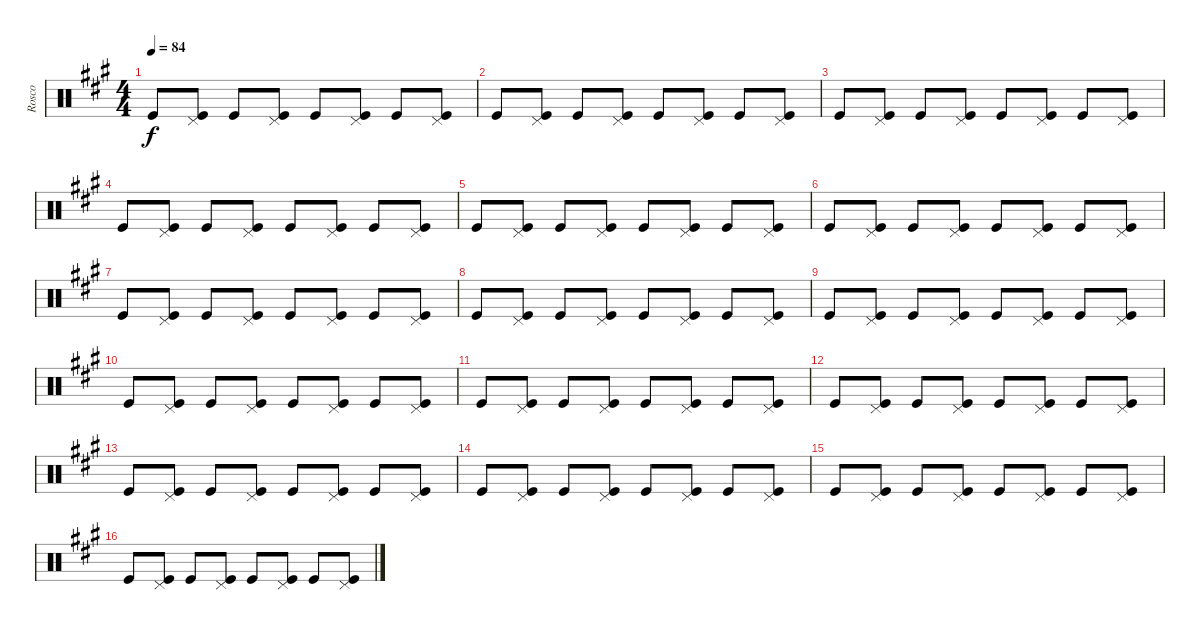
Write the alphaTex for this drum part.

\track ("Rosco" "Rosco") {instrument percussion}
\staff {score}
\articulation defaults
\ts (4 4)
\tempo 84
\clef neutral
\ks a "Kick (hit)".8{dy f}
("Pedal Hi-Hat (hit)" "Kick (hit)").8 "Kick (hit)".8 ("Pedal Hi-Hat (hit)" "Kick (hit)").8 "Kick (hit)".8 ("Pedal Hi-Hat (hit)" "Kick (hit)").8 "Kick (hit)".8 ("Pedal Hi-Hat (hit)" "Kick (hit)").8 |
"Kick (hit)".8 ("Pedal Hi-Hat (hit)" "Kick (hit)").8 "Kick (hit)".8 ("Pedal Hi-Hat (hit)" "Kick (hit)").8 "Kick (hit)".8 ("Pedal Hi-Hat (hit)" "Kick (hit)").8 "Kick (hit)".8 ("Pedal Hi-Hat (hit)" "Kick (hit)").8 |
"Kick (hit)".8 ("Pedal Hi-Hat (hit)" "Kick (hit)").8 "Kick (hit)".8 ("Pedal Hi-Hat (hit)" "Kick (hit)").8 "Kick (hit)".8 ("Pedal Hi-Hat (hit)" "Kick (hit)").8 "Kick (hit)".8 ("Pedal Hi-Hat (hit)" "Kick (hit)").8 |
"Kick (hit)".8 ("Pedal Hi-Hat (hit)" "Kick (hit)").8 "Kick (hit)".8 ("Pedal Hi-Hat (hit)" "Kick (hit)").8 "Kick (hit)".8 ("Pedal Hi-Hat (hit)" "Kick (hit)").8 "Kick (hit)".8 ("Pedal Hi-Hat (hit)" "Kick (hit)").8 |
"Kick (hit)".8 ("Pedal Hi-Hat (hit)" "Kick (hit)").8 "Kick (hit)".8 ("Pedal Hi-Hat (hit)" "Kick (hit)").8 "Kick (hit)".8 ("Pedal Hi-Hat (hit)" "Kick (hit)").8 "Kick (hit)".8 ("Pedal Hi-Hat (hit)" "Kick (hit)").8 |
"Kick (hit)".8 ("Pedal Hi-Hat (hit)" "Kick (hit)").8 "Kick (hit)".8 ("Pedal Hi-Hat (hit)" "Kick (hit)").8 "Kick (hit)".8 ("Pedal Hi-Hat (hit)" "Kick (hit)").8 "Kick (hit)".8 ("Pedal Hi-Hat (hit)" "Kick (hit)").8 |
"Kick (hit)".8 ("Pedal Hi-Hat (hit)" "Kick (hit)").8 "Kick (hit)".8 ("Pedal Hi-Hat (hit)" "Kick (hit)").8 "Kick (hit)".8 ("Pedal Hi-Hat (hit)" "Kick (hit)").8 "Kick (hit)".8 ("Pedal Hi-Hat (hit)" "Kick (hit)").8 |
"Kick (hit)".8 ("Pedal Hi-Hat (hit)" "Kick (hit)").8 "Kick (hit)".8 ("Pedal Hi-Hat (hit)" "Kick (hit)").8 "Kick (hit)".8 ("Pedal Hi-Hat (hit)" "Kick (hit)").8 "Kick (hit)".8 ("Pedal Hi-Hat (hit)" "Kick (hit)").8 |
"Kick (hit)".8 ("Pedal Hi-Hat (hit)" "Kick (hit)").8 "Kick (hit)".8 ("Pedal Hi-Hat (hit)" "Kick (hit)").8 "Kick (hit)".8 ("Pedal Hi-Hat (hit)" "Kick (hit)").8 "Kick (hit)".8 ("Pedal Hi-Hat (hit)" "Kick (hit)").8 |
"Kick (hit)".8 ("Pedal Hi-Hat (hit)" "Kick (hit)").8 "Kick (hit)".8 ("Pedal Hi-Hat (hit)" "Kick (hit)").8 "Kick (hit)".8 ("Pedal Hi-Hat (hit)" "Kick (hit)").8 "Kick (hit)".8 ("Pedal Hi-Hat (hit)" "Kick (hit)").8 |
"Kick (hit)".8 ("Pedal Hi-Hat (hit)" "Kick (hit)").8 "Kick (hit)".8 ("Pedal Hi-Hat (hit)" "Kick (hit)").8 "Kick (hit)".8 ("Pedal Hi-Hat (hit)" "Kick (hit)").8 "Kick (hit)".8 ("Pedal Hi-Hat (hit)" "Kick (hit)").8 |
"Kick (hit)".8 ("Pedal Hi-Hat (hit)" "Kick (hit)").8 "Kick (hit)".8 ("Pedal Hi-Hat (hit)" "Kick (hit)").8 "Kick (hit)".8 ("Pedal Hi-Hat (hit)" "Kick (hit)").8 "Kick (hit)".8 ("Pedal Hi-Hat (hit)" "Kick (hit)").8 |
"Kick (hit)".8 ("Pedal Hi-Hat (hit)" "Kick (hit)").8 "Kick (hit)".8 ("Pedal Hi-Hat (hit)" "Kick (hit)").8 "Kick (hit)".8 ("Pedal Hi-Hat (hit)" "Kick (hit)").8 "Kick (hit)".8 ("Pedal Hi-Hat (hit)" "Kick (hit)").8 |
"Kick (hit)".8 ("Pedal Hi-Hat (hit)" "Kick (hit)").8 "Kick (hit)".8 ("Pedal Hi-Hat (hit)" "Kick (hit)").8 "Kick (hit)".8 ("Pedal Hi-Hat (hit)" "Kick (hit)").8 "Kick (hit)".8 ("Pedal Hi-Hat (hit)" "Kick (hit)").8 |
"Kick (hit)".8 ("Pedal Hi-Hat (hit)" "Kick (hit)").8 "Kick (hit)".8 ("Pedal Hi-Hat (hit)" "Kick (hit)").8 "Kick (hit)".8 ("Pedal Hi-Hat (hit)" "Kick (hit)").8 "Kick (hit)".8 ("Pedal Hi-Hat (hit)" "Kick (hit)").8 |
"Kick (hit)".8 ("Pedal Hi-Hat (hit)" "Kick (hit)").8 "Kick (hit)".8 ("Pedal Hi-Hat (hit)" "Kick (hit)").8 "Kick (hit)".8 ("Pedal Hi-Hat (hit)" "Kick (hit)").8 "Kick (hit)".8 ("Pedal Hi-Hat (hit)" "Kick (hit)").8
